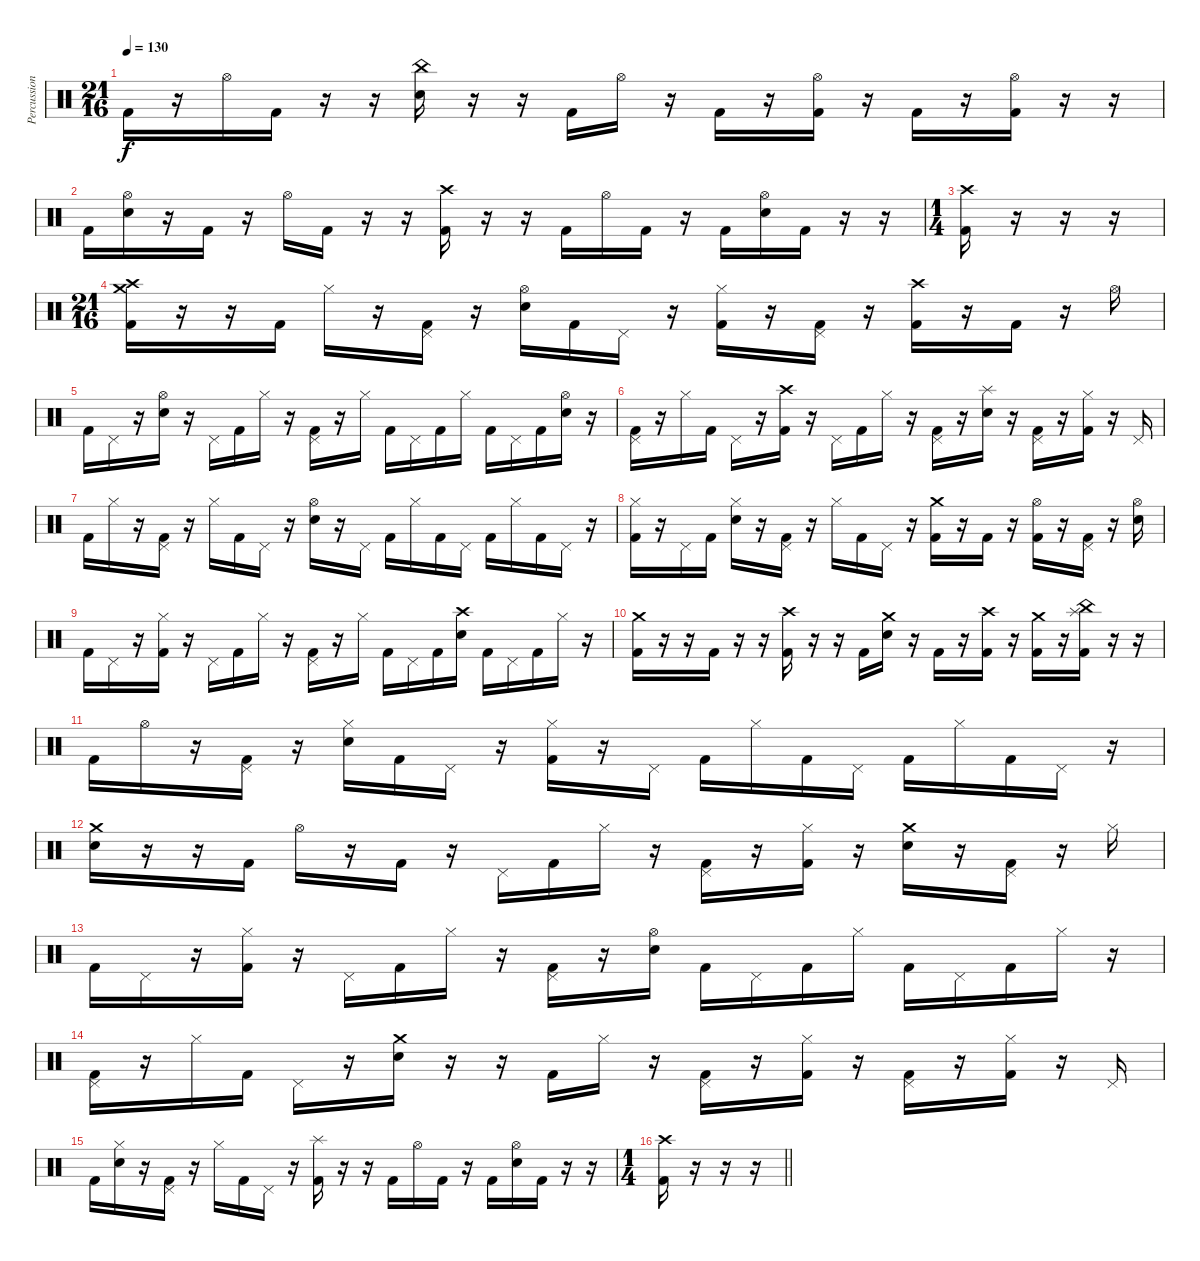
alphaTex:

\track ("Percussions" "Percussion") {instrument percussion}
\staff {score}
\articulation defaults
\ts (21 16)
\tempo 130
\clef neutral
\ks c "Kick (hit) 2".16{dy f}
r.16 "Hi-Hat (open)".16 "Kick (hit) 2".16 r.16 r.16 ("China (hit)" "Electric Snare (hit)").16 r.16 r.16 "Kick (hit) 2".16 "Hi-Hat (open)".16 r.16 "Kick (hit) 2".16 r.16 ("Hi-Hat (open)" "Kick (hit) 2").16 r.16 "Kick (hit) 2".16 r.16 ("Hi-Hat (open)" "Kick (hit) 2").16 r.16 r.16 |
"Kick (hit) 2".16 ("Hi-Hat (open)" "Electric Snare (hit)").16 r.16 "Kick (hit) 2".16 r.16 "Hi-Hat (open)".16 "Kick (hit) 2".16 r.16 r.16 ("Crash high (hit)" "Kick (hit) 2").16 r.16 r.16 "Kick (hit) 2".16 "Hi-Hat (open)".16 "Kick (hit) 2".16 r.16 "Kick (hit) 2".16 ("Hi-Hat (open)" "Electric Snare (hit)").16 "Kick (hit) 2".16 r.16 r.16 |
\ts (1 4)
("Crash high (hit)" "Kick (hit) 2").16 r.16 r.16 r.16 |
\ts (21 16)
("Crash medium (hit)" "Crash high (hit)" "Kick (hit) 2").16 r.16 r.16 "Kick (hit) 2".16 "Hi-Hat (closed)".16 r.16 ("Pedal Hi-Hat (hit)" "Kick (hit) 2").16 r.16 ("Hi-Hat (open)" "Electric Snare (hit)").16 "Kick (hit) 2".16 "Pedal Hi-Hat (hit)".16 r.16 ("Hi-Hat (closed)" "Kick (hit) 2").16 r.16 ("Pedal Hi-Hat (hit)" "Kick (hit) 2").16 r.16 ("Crash high (hit)" "Kick (hit) 2").16 r.16 "Kick (hit) 2".16 r.16 "Hi-Hat (open)".16 |
"Kick (hit) 2".16 "Pedal Hi-Hat (hit)".16 r.16 ("Hi-Hat (open)" "Electric Snare (hit)").16 r.16 "Pedal Hi-Hat (hit)".16 "Kick (hit) 2".16 "Hi-Hat (closed)".16 r.16 ("Pedal Hi-Hat (hit)" "Kick (hit) 2").16 r.16 "Hi-Hat (closed)".16 "Kick (hit) 2".16 "Pedal Hi-Hat (hit)".16 "Kick (hit) 2".16 "Hi-Hat (closed)".16 "Kick (hit) 2".16 "Pedal Hi-Hat (hit)".16 "Kick (hit) 2".16 ("Hi-Hat (open)" "Electric Snare (hit)").16 r.16 |
("Pedal Hi-Hat (hit)" "Kick (hit) 2").16 r.16 "Hi-Hat (closed)".16 "Kick (hit) 2".16 "Pedal Hi-Hat (hit)".16 r.16 ("Crash high (hit)" "Kick (hit) 2").16 r.16 "Pedal Hi-Hat (hit)".16 "Kick (hit) 2".16 "Hi-Hat (closed)".16 r.16 ("Pedal Hi-Hat (hit)" "Kick (hit) 2").16 r.16 ("Splash (hit)" "Electric Snare (hit)").16 r.16 ("Pedal Hi-Hat (hit)" "Kick (hit) 2").16 r.16 ("Hi-Hat (closed)" "Kick (hit) 2").16 r.16 "Pedal Hi-Hat (hit)".16 |
"Kick (hit) 2".16 "Hi-Hat (closed)".16 r.16 ("Pedal Hi-Hat (hit)" "Kick (hit) 2").16 r.16 "Hi-Hat (closed)".16 "Kick (hit) 2".16 "Pedal Hi-Hat (hit)".16 r.16 ("Hi-Hat (open)" "Electric Snare (hit)").16 r.16 "Pedal Hi-Hat (hit)".16 "Kick (hit) 2".16 "Hi-Hat (closed)".16 "Kick (hit) 2".16 "Pedal Hi-Hat (hit)".16 "Kick (hit) 2".16 "Hi-Hat (closed)".16 "Kick (hit) 2".16 "Pedal Hi-Hat (hit)".16 r.16 |
("Hi-Hat (closed)" "Kick (hit) 2").16 r.16 "Pedal Hi-Hat (hit)".16 "Kick (hit) 2".16 ("Hi-Hat (closed)" "Electric Snare (hit)").16 r.16 ("Pedal Hi-Hat (hit)" "Kick (hit) 2").16 r.16 "Hi-Hat (closed)".16 "Kick (hit) 2".16 "Pedal Hi-Hat (hit)".16 r.16 ("Crash medium (hit)" "Kick (hit) 2").16 r.16 "Kick (hit) 2".16 r.16 ("Hi-Hat (open)" "Kick (hit) 2").16 r.16 ("Pedal Hi-Hat (hit)" "Kick (hit) 2").16 r.16 ("Hi-Hat (open)" "Electric Snare (hit)").16 |
"Kick (hit) 2".16 "Pedal Hi-Hat (hit)".16 r.16 ("Hi-Hat (closed)" "Kick (hit) 2").16 r.16 "Pedal Hi-Hat (hit)".16 "Kick (hit) 2".16 "Hi-Hat (closed)".16 r.16 ("Pedal Hi-Hat (hit)" "Kick (hit) 2").16 r.16 "Hi-Hat (closed)".16 "Kick (hit) 2".16 "Pedal Hi-Hat (hit)".16 "Kick (hit) 2".16 ("Crash high (hit)" "Electric Snare (hit)").16 "Kick (hit) 2".16 "Pedal Hi-Hat (hit)".16 "Kick (hit) 2".16 "Hi-Hat (closed)".16 r.16 |
("Crash medium (hit)" "Kick (hit) 2").16 r.16 r.16 "Kick (hit) 2".16 r.16 r.16 ("Crash high (hit)" "Kick (hit) 2").16 r.16 r.16 "Kick (hit) 2".16 ("Crash medium (hit)" "Electric Snare (hit)").16 r.16 "Kick (hit) 2".16 r.16 ("Crash high (hit)" "Kick (hit) 2").16 r.16 ("Crash medium (hit)" "Kick (hit) 2").16 r.16 ("China (hit)" "Splash (hit)" "Kick (hit) 2").16 r.16 r.16 |
"Kick (hit) 2".16 "Hi-Hat (open)".16 r.16 ("Pedal Hi-Hat (hit)" "Kick (hit) 2").16 r.16 ("Hi-Hat (closed)" "Electric Snare (hit)").16 "Kick (hit) 2".16 "Pedal Hi-Hat (hit)".16 r.16 ("Hi-Hat (closed)" "Kick (hit) 2").16 r.16 "Pedal Hi-Hat (hit)".16 "Kick (hit) 2".16 "Hi-Hat (closed)".16 "Kick (hit) 2".16 "Pedal Hi-Hat (hit)".16 "Kick (hit) 2".16 "Hi-Hat (closed)".16 "Kick (hit) 2".16 "Pedal Hi-Hat (hit)".16 r.16 |
("Crash medium (hit)" "Electric Snare (hit)").16 r.16 r.16 "Kick (hit) 2".16 "Hi-Hat (open)".16 r.16 "Kick (hit) 2".16 r.16 "Pedal Hi-Hat (hit)".16 "Kick (hit) 2".16 "Hi-Hat (closed)".16 r.16 ("Pedal Hi-Hat (hit)" "Kick (hit) 2").16 r.16 ("Hi-Hat (closed)" "Kick (hit) 2").16 r.16 ("Crash medium (hit)" "Electric Snare (hit)").16 r.16 ("Pedal Hi-Hat (hit)" "Kick (hit) 2").16 r.16 "Hi-Hat (closed)".16 |
"Kick (hit) 2".16 "Pedal Hi-Hat (hit)".16 r.16 ("Hi-Hat (closed)" "Kick (hit) 2").16 r.16 "Pedal Hi-Hat (hit)".16 "Kick (hit) 2".16 "Hi-Hat (closed)".16 r.16 ("Pedal Hi-Hat (hit)" "Kick (hit) 2").16 r.16 ("Hi-Hat (open)" "Electric Snare (hit)").16 "Kick (hit) 2".16 "Pedal Hi-Hat (hit)".16 "Kick (hit) 2".16 "Hi-Hat (closed)".16 "Kick (hit) 2".16 "Pedal Hi-Hat (hit)".16 "Kick (hit) 2".16 "Hi-Hat (closed)".16 r.16 |
("Pedal Hi-Hat (hit)" "Kick (hit) 2").16 r.16 "Hi-Hat (closed)".16 "Kick (hit) 2".16 "Pedal Hi-Hat (hit)".16 r.16 ("Crash medium (hit)" "Electric Snare (hit)").16 r.16 r.16 "Kick (hit) 2".16 "Hi-Hat (closed)".16 r.16 ("Pedal Hi-Hat (hit)" "Kick (hit) 2").16 r.16 ("Hi-Hat (closed)" "Kick (hit) 2").16 r.16 ("Pedal Hi-Hat (hit)" "Kick (hit) 2").16 r.16 ("Hi-Hat (closed)" "Kick (hit) 2").16 r.16 "Pedal Hi-Hat (hit)".16 |
"Kick (hit) 2".16 ("Hi-Hat (closed)" "Electric Snare (hit)").16 r.16 ("Pedal Hi-Hat (hit)" "Kick (hit) 2").16 r.16 "Hi-Hat (closed)".16 "Kick (hit) 2".16 "Pedal Hi-Hat (hit)".16 r.16 ("Splash (hit)" "Kick (hit) 2").16 r.16 r.16 "Kick (hit) 2".16 "Hi-Hat (open)".16 "Kick (hit) 2".16 r.16 "Kick (hit) 2".16 ("Hi-Hat (open)" "Electric Snare (hit)").16 "Kick (hit) 2".16 r.16 r.16 |
\ts (1 4)
\barLineRight lightlight
("Crash high (hit)" "Kick (hit) 2").16 r.16 r.16 r.16
